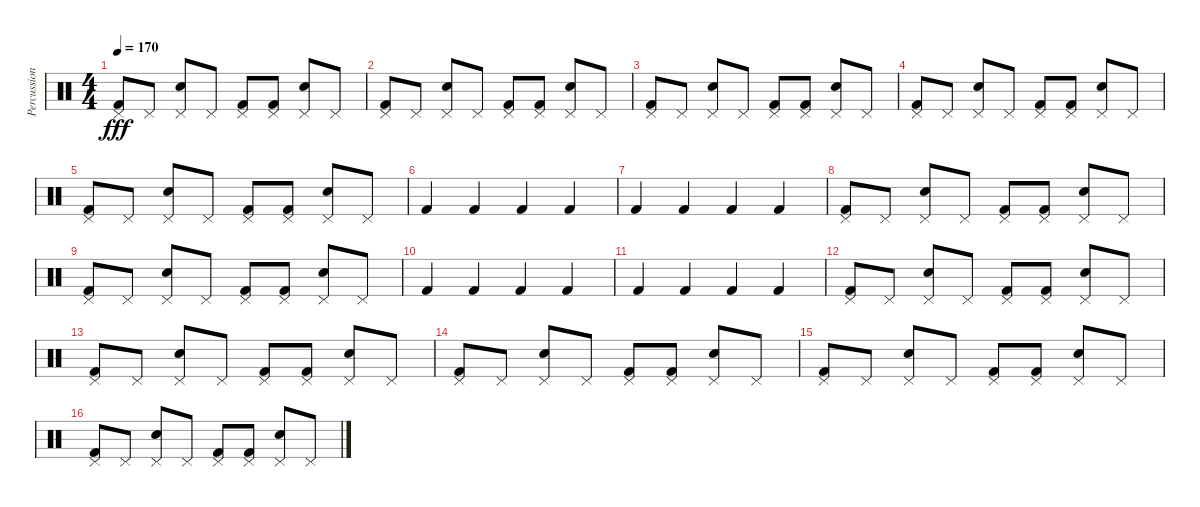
\track ("Percussion" "Percussion") {instrument percussion}
\staff {score}
\articulation defaults
\ts (4 4)
\tempo 170
\clef neutral
\ks c
("Pedal Hi-Hat (hit)" "Kick (hit) 2").8{dy fff} "Pedal Hi-Hat (hit)".8 ("Pedal Hi-Hat (hit)" "Snare (hit) 2").8 "Pedal Hi-Hat (hit)".8 ("Pedal Hi-Hat (hit)" "Kick (hit) 2").8 ("Pedal Hi-Hat (hit)" "Kick (hit) 2").8 ("Pedal Hi-Hat (hit)" "Snare (hit) 2").8 "Pedal Hi-Hat (hit)".8 |
("Pedal Hi-Hat (hit)" "Kick (hit) 2").8 "Pedal Hi-Hat (hit)".8 ("Pedal Hi-Hat (hit)" "Snare (hit) 2").8 "Pedal Hi-Hat (hit)".8 ("Pedal Hi-Hat (hit)" "Kick (hit) 2").8 ("Pedal Hi-Hat (hit)" "Kick (hit) 2").8 ("Pedal Hi-Hat (hit)" "Snare (hit) 2").8 "Pedal Hi-Hat (hit)".8 |
("Pedal Hi-Hat (hit)" "Kick (hit) 2").8 "Pedal Hi-Hat (hit)".8 ("Pedal Hi-Hat (hit)" "Snare (hit) 2").8 "Pedal Hi-Hat (hit)".8 ("Pedal Hi-Hat (hit)" "Kick (hit) 2").8 ("Pedal Hi-Hat (hit)" "Kick (hit) 2").8 ("Pedal Hi-Hat (hit)" "Snare (hit) 2").8 "Pedal Hi-Hat (hit)".8 |
("Pedal Hi-Hat (hit)" "Kick (hit) 2").8 "Pedal Hi-Hat (hit)".8 ("Pedal Hi-Hat (hit)" "Snare (hit) 2").8 "Pedal Hi-Hat (hit)".8 ("Pedal Hi-Hat (hit)" "Kick (hit) 2").8 ("Pedal Hi-Hat (hit)" "Kick (hit) 2").8 ("Pedal Hi-Hat (hit)" "Snare (hit) 2").8 "Pedal Hi-Hat (hit)".8 |
("Pedal Hi-Hat (hit)" "Kick (hit) 2").8 "Pedal Hi-Hat (hit)".8 ("Pedal Hi-Hat (hit)" "Snare (hit) 2").8 "Pedal Hi-Hat (hit)".8 ("Pedal Hi-Hat (hit)" "Kick (hit) 2").8 ("Pedal Hi-Hat (hit)" "Kick (hit) 2").8 ("Pedal Hi-Hat (hit)" "Snare (hit) 2").8 "Pedal Hi-Hat (hit)".8 |
"Kick (hit) 2".4 "Kick (hit) 2".4 "Kick (hit) 2".4 "Kick (hit) 2".4 |
"Kick (hit) 2".4 "Kick (hit) 2".4 "Kick (hit) 2".4 "Kick (hit) 2".4 |
("Pedal Hi-Hat (hit)" "Kick (hit) 2").8 "Pedal Hi-Hat (hit)".8 ("Pedal Hi-Hat (hit)" "Snare (hit) 2").8 "Pedal Hi-Hat (hit)".8 ("Pedal Hi-Hat (hit)" "Kick (hit) 2").8 ("Pedal Hi-Hat (hit)" "Kick (hit) 2").8 ("Pedal Hi-Hat (hit)" "Snare (hit) 2").8 "Pedal Hi-Hat (hit)".8 |
("Pedal Hi-Hat (hit)" "Kick (hit) 2").8 "Pedal Hi-Hat (hit)".8 ("Pedal Hi-Hat (hit)" "Snare (hit) 2").8 "Pedal Hi-Hat (hit)".8 ("Pedal Hi-Hat (hit)" "Kick (hit) 2").8 ("Pedal Hi-Hat (hit)" "Kick (hit) 2").8 ("Pedal Hi-Hat (hit)" "Snare (hit) 2").8 "Pedal Hi-Hat (hit)".8 |
"Kick (hit) 2".4 "Kick (hit) 2".4 "Kick (hit) 2".4 "Kick (hit) 2".4 |
"Kick (hit) 2".4 "Kick (hit) 2".4 "Kick (hit) 2".4 "Kick (hit) 2".4 |
("Pedal Hi-Hat (hit)" "Kick (hit) 2").8 "Pedal Hi-Hat (hit)".8 ("Pedal Hi-Hat (hit)" "Snare (hit) 2").8 "Pedal Hi-Hat (hit)".8 ("Pedal Hi-Hat (hit)" "Kick (hit) 2").8 ("Pedal Hi-Hat (hit)" "Kick (hit) 2").8 ("Pedal Hi-Hat (hit)" "Snare (hit) 2").8 "Pedal Hi-Hat (hit)".8 |
("Pedal Hi-Hat (hit)" "Kick (hit) 2").8 "Pedal Hi-Hat (hit)".8 ("Pedal Hi-Hat (hit)" "Snare (hit) 2").8 "Pedal Hi-Hat (hit)".8 ("Pedal Hi-Hat (hit)" "Kick (hit) 2").8 ("Pedal Hi-Hat (hit)" "Kick (hit) 2").8 ("Pedal Hi-Hat (hit)" "Snare (hit) 2").8 "Pedal Hi-Hat (hit)".8 |
("Pedal Hi-Hat (hit)" "Kick (hit) 2").8 "Pedal Hi-Hat (hit)".8 ("Pedal Hi-Hat (hit)" "Snare (hit) 2").8 "Pedal Hi-Hat (hit)".8 ("Pedal Hi-Hat (hit)" "Kick (hit) 2").8 ("Pedal Hi-Hat (hit)" "Kick (hit) 2").8 ("Pedal Hi-Hat (hit)" "Snare (hit) 2").8 "Pedal Hi-Hat (hit)".8 |
("Pedal Hi-Hat (hit)" "Kick (hit) 2").8 "Pedal Hi-Hat (hit)".8 ("Pedal Hi-Hat (hit)" "Snare (hit) 2").8 "Pedal Hi-Hat (hit)".8 ("Pedal Hi-Hat (hit)" "Kick (hit) 2").8 ("Pedal Hi-Hat (hit)" "Kick (hit) 2").8 ("Pedal Hi-Hat (hit)" "Snare (hit) 2").8 "Pedal Hi-Hat (hit)".8 |
("Pedal Hi-Hat (hit)" "Kick (hit) 2").8 "Pedal Hi-Hat (hit)".8 ("Pedal Hi-Hat (hit)" "Snare (hit) 2").8 "Pedal Hi-Hat (hit)".8 ("Pedal Hi-Hat (hit)" "Kick (hit) 2").8 ("Pedal Hi-Hat (hit)" "Kick (hit) 2").8 ("Pedal Hi-Hat (hit)" "Snare (hit) 2").8 "Pedal Hi-Hat (hit)".8
